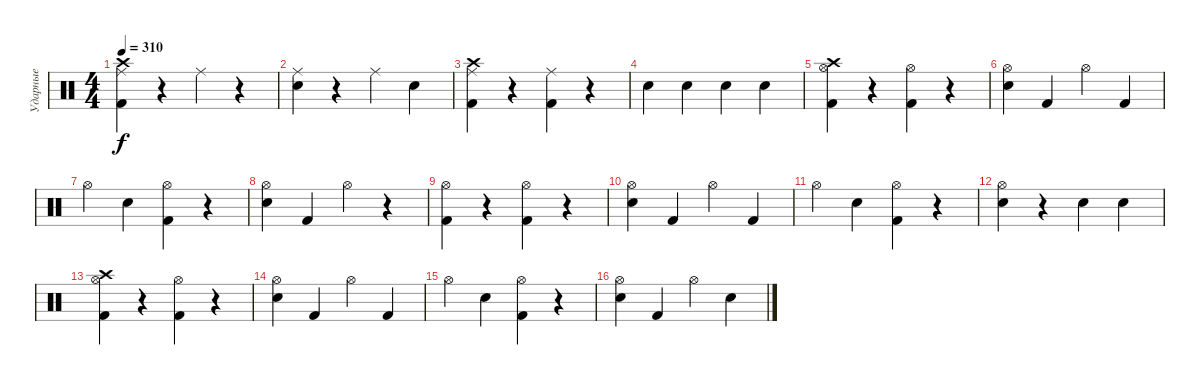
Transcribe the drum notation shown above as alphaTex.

\track ("Ударные" "Ударные") {instrument percussion}
\staff {score}
\articulation defaults
\ts (4 4)
\tempo 310
\clef neutral
\ks c
("Crash high (hit)" "Ride (middle)" "Kick (hit) 2").4{dy f} r.4 "Ride (middle)".4 r.4 |
("Ride (middle)" "Electric Snare (hit)").4 r.4 "Ride (middle)".4 "Electric Snare (hit)".4 |
("Crash high (hit)" "Ride (middle)" "Kick (hit) 2").4 r.4 ("Ride (middle)" "Kick (hit) 2").4 r.4 |
"Electric Snare (hit)".4 "Electric Snare (hit)".4 "Electric Snare (hit)".4 "Electric Snare (hit)".4 |
("Crash high (hit)" "Hi-Hat (open)" "Kick (hit) 2").4 r.4 ("Hi-Hat (open)" "Kick (hit) 2").4 r.4 |
("Hi-Hat (open)" "Electric Snare (hit)").4 "Kick (hit) 2".4 "Hi-Hat (open)".4 "Kick (hit) 2".4 |
"Hi-Hat (open)".4 "Electric Snare (hit)".4 ("Hi-Hat (open)" "Kick (hit) 2").4 r.4 |
("Hi-Hat (open)" "Electric Snare (hit)").4 "Kick (hit) 2".4 "Hi-Hat (open)".4 r.4 |
("Hi-Hat (open)" "Kick (hit) 2").4 r.4 ("Hi-Hat (open)" "Kick (hit) 2").4 r.4 |
("Hi-Hat (open)" "Electric Snare (hit)").4 "Kick (hit) 2".4 "Hi-Hat (open)".4 "Kick (hit) 2".4 |
"Hi-Hat (open)".4 "Electric Snare (hit)".4 ("Hi-Hat (open)" "Kick (hit) 2").4 r.4 |
("Hi-Hat (open)" "Electric Snare (hit)").4 r.4 "Electric Snare (hit)".4 "Electric Snare (hit)".4 |
("Crash high (hit)" "Hi-Hat (open)" "Kick (hit) 2").4 r.4 ("Hi-Hat (open)" "Kick (hit) 2").4 r.4 |
("Hi-Hat (open)" "Electric Snare (hit)").4 "Kick (hit) 2".4 "Hi-Hat (open)".4 "Kick (hit) 2".4 |
"Hi-Hat (open)".4 "Electric Snare (hit)".4 ("Hi-Hat (open)" "Kick (hit) 2").4 r.4 |
("Hi-Hat (open)" "Electric Snare (hit)").4 "Kick (hit) 2".4 "Hi-Hat (open)".4 "Electric Snare (hit)".4
